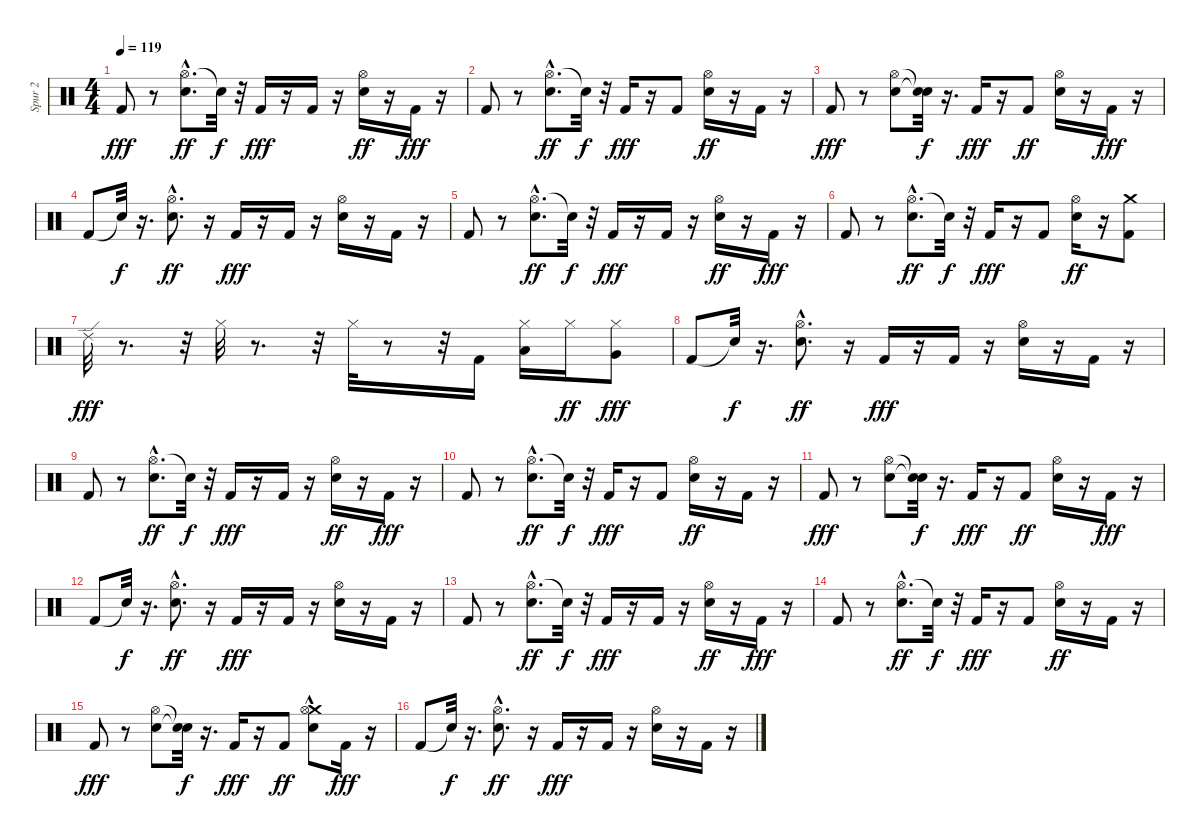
\track ("Spur 2" "Spur 2") {instrument percussion}
\staff {score}
\articulation defaults
\ts (4 4)
\tempo 119
\clef neutral
\ks c "Kick (hit) 2".8{dy fff}
r.8 ("Hi-Hat (open)"{hac} "Electric Snare (hit)").8{d dy ff} "Snare (hit)"{t}.32{dy f} r.32 "Kick (hit) 2".16{dy fff} r.16 "Kick (hit) 2".16 r.16 ("Hi-Hat (open)" "Electric Snare (hit)").16{dy ff} r.16 "Kick (hit) 2".16{dy fff} r.16 |
"Kick (hit) 2".8 r.8 ("Hi-Hat (open)"{hac} "Electric Snare (hit)").8{d dy ff} "Snare (hit)"{t}.32{dy f} r.32 "Kick (hit) 2".16{dy fff} r.16 "Kick (hit) 2".8 ("Hi-Hat (open)" "Electric Snare (hit)").16{dy ff} r.16 "Kick (hit) 2".16 r.16 |
"Kick (hit) 2".8{dy fff} r.8 ("Hi-Hat (open)" "Electric Snare (hit)").8 ("Snare (hit)"{t} "Snare (hit)"{t}).32{dy f} r.16{d} "Kick (hit) 2".16{dy fff} r.16 "Kick (hit) 2".8{dy ff} ("Hi-Hat (open)" "Electric Snare (hit)").16 r.16 "Kick (hit) 2".16{dy fff} r.16 |
"Kick (hit) 2".8 "Snare (hit)"{t}.32{dy f} r.16{d} ("Hi-Hat (open)"{hac} "Electric Snare (hit)").8{d dy ff} r.16 "Kick (hit) 2".16{dy fff} r.16 "Kick (hit) 2".16 r.16 ("Hi-Hat (open)" "Electric Snare (hit)").16 r.16 "Kick (hit) 2".16 r.16 |
"Kick (hit) 2".8 r.8 ("Hi-Hat (open)"{hac} "Electric Snare (hit)").8{d dy ff} "Snare (hit)"{t}.32{dy f} r.32 "Kick (hit) 2".16{dy fff} r.16 "Kick (hit) 2".16 r.16 ("Hi-Hat (open)" "Electric Snare (hit)").16{dy ff} r.16 "Kick (hit) 2".16{dy fff} r.16 |
"Kick (hit) 2".8 r.8 ("Hi-Hat (open)"{hac} "Electric Snare (hit)").8{d dy ff} "Snare (hit)"{t}.32{dy f} r.32 "Kick (hit) 2".16{dy fff} r.16 "Kick (hit) 2".8 ("Hi-Hat (open)" "Electric Snare (hit)").16{dy ff} r.16 ("Crash medium (hit)" "Kick (hit) 2").8 |
"Ride (edge) 2".32{dy fff} r.8{d} r.32 "Hi-Hat (closed)".32 r.8{d} r.32 "Hi-Hat (closed)".32 r.8 r.32 "Kick (hit) 2".16 ("Low Tom (hit)" "Hi-Hat (closed)").16 "Hi-Hat (closed)".16{dy ff} ("Very Low Tom (hit)" "Hi-Hat (closed)").8{dy fff} |
"Kick (hit) 2".8 "Snare (hit)"{t}.32{dy f} r.16{d} ("Hi-Hat (open)"{hac} "Electric Snare (hit)").8{d dy ff} r.16 "Kick (hit) 2".16{dy fff} r.16 "Kick (hit) 2".16 r.16 ("Hi-Hat (open)" "Electric Snare (hit)").16 r.16 "Kick (hit) 2".16 r.16 |
"Kick (hit) 2".8 r.8 ("Hi-Hat (open)"{hac} "Electric Snare (hit)").8{d dy ff} "Snare (hit)"{t}.32{dy f} r.32 "Kick (hit) 2".16{dy fff} r.16 "Kick (hit) 2".16 r.16 ("Hi-Hat (open)" "Electric Snare (hit)").16{dy ff} r.16 "Kick (hit) 2".16{dy fff} r.16 |
"Kick (hit) 2".8 r.8 ("Hi-Hat (open)"{hac} "Electric Snare (hit)").8{d dy ff} "Snare (hit)"{t}.32{dy f} r.32 "Kick (hit) 2".16{dy fff} r.16 "Kick (hit) 2".8 ("Hi-Hat (open)" "Electric Snare (hit)").16{dy ff} r.16 "Kick (hit) 2".16 r.16 |
"Kick (hit) 2".8{dy fff} r.8 ("Hi-Hat (open)" "Electric Snare (hit)").8 ("Snare (hit)"{t} "Snare (hit)"{t}).32{dy f} r.16{d} "Kick (hit) 2".16{dy fff} r.16 "Kick (hit) 2".8{dy ff} ("Hi-Hat (open)" "Electric Snare (hit)").16 r.16 "Kick (hit) 2".16{dy fff} r.16 |
"Kick (hit) 2".8 "Snare (hit)"{t}.32{dy f} r.16{d} ("Hi-Hat (open)"{hac} "Electric Snare (hit)").8{d dy ff} r.16 "Kick (hit) 2".16{dy fff} r.16 "Kick (hit) 2".16 r.16 ("Hi-Hat (open)" "Electric Snare (hit)").16 r.16 "Kick (hit) 2".16 r.16 |
"Kick (hit) 2".8 r.8 ("Hi-Hat (open)"{hac} "Electric Snare (hit)").8{d dy ff} "Snare (hit)"{t}.32{dy f} r.32 "Kick (hit) 2".16{dy fff} r.16 "Kick (hit) 2".16 r.16 ("Hi-Hat (open)" "Electric Snare (hit)").16{dy ff} r.16 "Kick (hit) 2".16{dy fff} r.16 |
"Kick (hit) 2".8 r.8 ("Hi-Hat (open)"{hac} "Electric Snare (hit)").8{d dy ff} "Snare (hit)"{t}.32{dy f} r.32 "Kick (hit) 2".16{dy fff} r.16 "Kick (hit) 2".8 ("Hi-Hat (open)" "Electric Snare (hit)").16{dy ff} r.16 "Kick (hit) 2".16 r.16 |
"Kick (hit) 2".8{dy fff} r.8 ("Hi-Hat (open)" "Electric Snare (hit)").8 ("Snare (hit)"{t} "Snare (hit)"{t}).32{dy f} r.16{d} "Kick (hit) 2".16{dy fff} r.16 "Kick (hit) 2".8{dy ff} ("Crash medium (hit)"{hac} "Hi-Hat (open)" "Electric Snare (hit)").8 "Kick (hit) 2".16{dy fff} r.16 |
"Kick (hit) 2".8 "Snare (hit)"{t}.32{dy f} r.16{d} ("Hi-Hat (open)"{hac} "Electric Snare (hit)").8{d dy ff} r.16 "Kick (hit) 2".16{dy fff} r.16 "Kick (hit) 2".16 r.16 ("Hi-Hat (open)" "Electric Snare (hit)").16 r.16 "Kick (hit) 2".16 r.16
